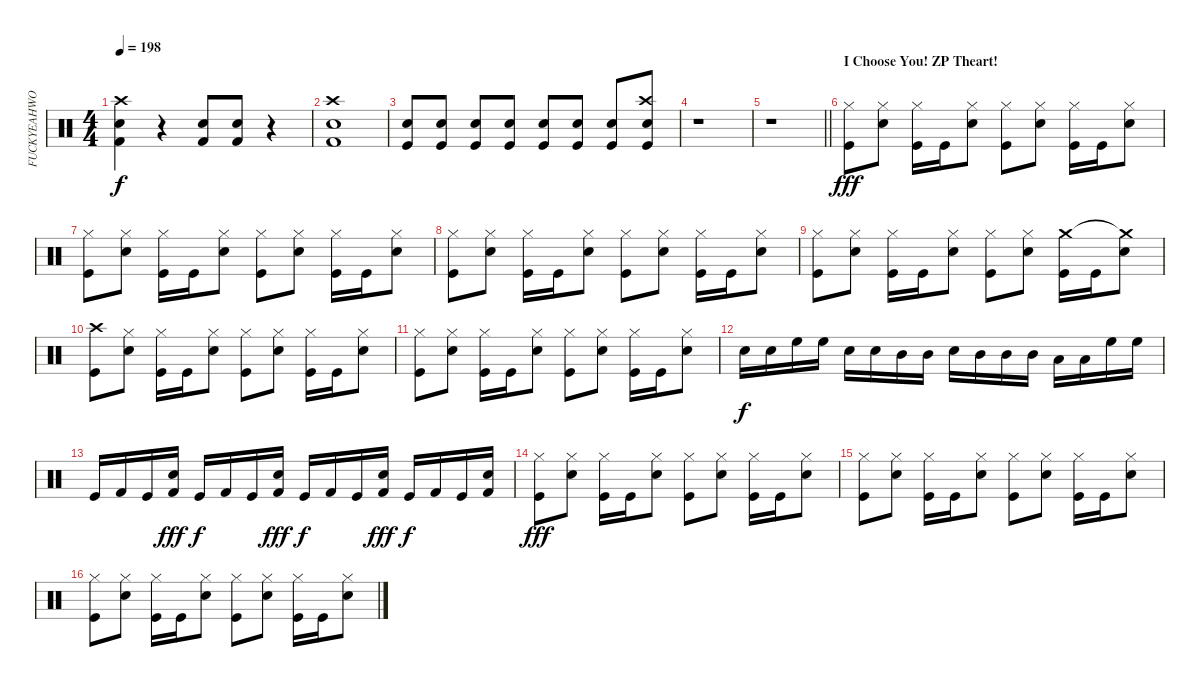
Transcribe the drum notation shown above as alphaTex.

\track ("FUCKYEAHWOOTDAVEMACKINTOSH!(Percussion)" "FUCKYEAHWO") {instrument percussion}
\staff {score}
\articulation defaults
\ts (4 4)
\tempo 198
\clef neutral
\ks c
("Snare (hit) 2" "Kick (hit) 2" "Crash high (hit)").4{dy f} r.4 ("Kick (hit) 2" "Snare (hit) 2").8 ("Kick (hit) 2" "Snare (hit) 2").8 r.4 |
("Crash high (hit)" "Kick (hit) 2" "Snare (hit) 2").1 |
("Snare (hit) 2" "Kick (hit)").8 ("Snare (hit) 2" "Kick (hit)").8 ("Snare (hit) 2" "Kick (hit)").8 ("Snare (hit) 2" "Kick (hit)").8 ("Snare (hit) 2" "Kick (hit)").8 ("Snare (hit) 2" "Kick (hit)").8 ("Kick (hit)" "Snare (hit) 2").8 ("Snare (hit) 2" "Kick (hit)" "Crash high (hit)").8 |
r.1 |
\barLineRight lightlight
r.1 |
\section ("" "I Choose You! ZP Theart!")
("Kick (hit)" "Hi-Hat (closed)").8{dy fff} ("Snare (hit) 2" "Hi-Hat (closed)").8 ("Kick (hit)" "Hi-Hat (closed)").16 "Kick (hit)".16 ("Hi-Hat (closed)" "Snare (hit) 2").8 ("Kick (hit)" "Hi-Hat (closed)").8 ("Snare (hit) 2" "Hi-Hat (closed)").8 ("Kick (hit)" "Hi-Hat (closed)").16 "Kick (hit)".16 ("Snare (hit) 2" "Hi-Hat (closed)").8 |
("Kick (hit)" "Hi-Hat (closed)").8 ("Snare (hit) 2" "Hi-Hat (closed)").8 ("Kick (hit)" "Hi-Hat (closed)").16 "Kick (hit)".16 ("Hi-Hat (closed)" "Snare (hit) 2").8 ("Kick (hit)" "Hi-Hat (closed)").8 ("Snare (hit) 2" "Hi-Hat (closed)").8 ("Kick (hit)" "Hi-Hat (closed)").16 "Kick (hit)".16 ("Snare (hit) 2" "Hi-Hat (closed)").8 |
("Kick (hit)" "Hi-Hat (closed)").8 ("Snare (hit) 2" "Hi-Hat (closed)").8 ("Kick (hit)" "Hi-Hat (closed)").16 "Kick (hit)".16 ("Hi-Hat (closed)" "Snare (hit) 2").8 ("Kick (hit)" "Hi-Hat (closed)").8 ("Snare (hit) 2" "Hi-Hat (closed)").8 ("Kick (hit)" "Hi-Hat (closed)").16 "Kick (hit)".16 ("Snare (hit) 2" "Hi-Hat (closed)").8 |
("Kick (hit)" "Hi-Hat (closed)").8 ("Snare (hit) 2" "Hi-Hat (closed)").8 ("Kick (hit)" "Hi-Hat (closed)").16 "Kick (hit)".16 ("Hi-Hat (closed)" "Snare (hit) 2").8 ("Kick (hit)" "Hi-Hat (closed)").8 ("Snare (hit) 2" "Hi-Hat (closed)").8 ("Kick (hit)" "Crash medium (hit)").16 "Kick (hit)".16 ("Snare (hit) 2" "Crash medium (hit)"{t}).8 |
("Kick (hit)" "Crash high (hit)").8 ("Snare (hit) 2" "Hi-Hat (closed)").8 ("Kick (hit)" "Hi-Hat (closed)").16 "Kick (hit)".16 ("Hi-Hat (closed)" "Snare (hit) 2").8 ("Kick (hit)" "Hi-Hat (closed)").8 ("Snare (hit) 2" "Hi-Hat (closed)").8 ("Kick (hit)" "Hi-Hat (closed)").16 "Kick (hit)".16 ("Snare (hit) 2" "Hi-Hat (closed)").8 |
("Kick (hit)" "Hi-Hat (closed)").8 ("Snare (hit) 2" "Hi-Hat (closed)").8 ("Kick (hit)" "Hi-Hat (closed)").16 "Kick (hit)".16 ("Hi-Hat (closed)" "Snare (hit) 2").8 ("Kick (hit)" "Hi-Hat (closed)").8 ("Snare (hit) 2" "Hi-Hat (closed)").8 ("Kick (hit)" "Hi-Hat (closed)").16 "Kick (hit)".16 ("Snare (hit) 2" "Hi-Hat (closed)").8 |
"Snare (hit) 2".16{dy f} "Snare (hit) 2".16 "High Floor Tom (hit)".16 "High Floor Tom (hit)".16 "Snare (hit) 2".16 "Snare (hit) 2".16 "Mid Tom (hit)".16 "Mid Tom (hit)".16 "Snare (hit) 2".16 "Mid Tom (hit)".16 "Mid Tom (hit)".16 "Mid Tom (hit)".16 "Low Tom (hit)".16 "Low Tom (hit)".16 "High Floor Tom (hit)".16 "High Floor Tom (hit)".16 |
"Kick (hit)".16 "Kick (hit) 2".16 "Kick (hit)".16 ("Kick (hit) 2" "Snare (hit) 2").16{dy fff} "Kick (hit)".16{dy f} "Kick (hit) 2".16 "Kick (hit)".16 ("Kick (hit) 2" "Snare (hit) 2").16{dy fff} "Kick (hit)".16{dy f} "Kick (hit) 2".16 "Kick (hit)".16 ("Kick (hit) 2" "Snare (hit) 2").16{dy fff} "Kick (hit)".16{dy f} "Kick (hit) 2".16 "Kick (hit)".16 ("Kick (hit) 2" "Snare (hit) 2").16 |
("Kick (hit)" "Hi-Hat (closed)").8{dy fff} ("Snare (hit) 2" "Hi-Hat (closed)").8 ("Kick (hit)" "Hi-Hat (closed)").16 "Kick (hit)".16 ("Hi-Hat (closed)" "Snare (hit) 2").8 ("Kick (hit)" "Hi-Hat (closed)").8 ("Snare (hit) 2" "Hi-Hat (closed)").8 ("Kick (hit)" "Hi-Hat (closed)").16 "Kick (hit)".16 ("Snare (hit) 2" "Hi-Hat (closed)").8 |
("Kick (hit)" "Hi-Hat (closed)").8 ("Snare (hit) 2" "Hi-Hat (closed)").8 ("Kick (hit)" "Hi-Hat (closed)").16 "Kick (hit)".16 ("Hi-Hat (closed)" "Snare (hit) 2").8 ("Kick (hit)" "Hi-Hat (closed)").8 ("Snare (hit) 2" "Hi-Hat (closed)").8 ("Kick (hit)" "Hi-Hat (closed)").16 "Kick (hit)".16 ("Snare (hit) 2" "Hi-Hat (closed)").8 |
("Kick (hit)" "Hi-Hat (closed)").8 ("Snare (hit) 2" "Hi-Hat (closed)").8 ("Kick (hit)" "Hi-Hat (closed)").16 "Kick (hit)".16 ("Hi-Hat (closed)" "Snare (hit) 2").8 ("Kick (hit)" "Hi-Hat (closed)").8 ("Snare (hit) 2" "Hi-Hat (closed)").8 ("Kick (hit)" "Hi-Hat (closed)").16 "Kick (hit)".16 ("Snare (hit) 2" "Hi-Hat (closed)").8
